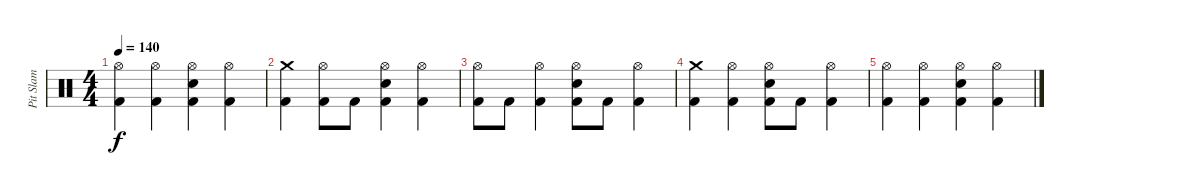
\track ("Pit Slam" "Pit Slam") {instrument percussion}
\staff {score}
\articulation defaults
\ts (4 4)
\tempo 140
\clef neutral
\ks c
("Hi-Hat (open)" "Kick (hit) 2").4{dy f} ("Hi-Hat (open)" "Kick (hit) 2").4 ("Hi-Hat (open)" "Electric Snare (hit)" "Kick (hit) 2").4 ("Hi-Hat (open)" "Kick (hit) 2").4 |
("Crash medium (hit)" "Kick (hit) 2").4 ("Hi-Hat (open)" "Kick (hit) 2").8 "Kick (hit) 2".8 ("Hi-Hat (open)" "Electric Snare (hit)" "Kick (hit) 2").4 ("Hi-Hat (open)" "Kick (hit) 2").4 |
("Hi-Hat (open)" "Kick (hit) 2").8 "Kick (hit) 2".8 ("Hi-Hat (open)" "Kick (hit) 2").4 ("Hi-Hat (open)" "Electric Snare (hit)" "Kick (hit) 2").8 "Kick (hit) 2".8 ("Hi-Hat (open)" "Kick (hit) 2").4 |
("Crash medium (hit)" "Kick (hit) 2").4 ("Hi-Hat (open)" "Kick (hit) 2").4 ("Hi-Hat (open)" "Electric Snare (hit)" "Kick (hit) 2").8 "Kick (hit) 2".8 ("Hi-Hat (open)" "Kick (hit) 2").4 |
("Hi-Hat (open)" "Kick (hit) 2").4 ("Hi-Hat (open)" "Kick (hit) 2").4 ("Hi-Hat (open)" "Electric Snare (hit)" "Kick (hit) 2").4 ("Hi-Hat (open)" "Kick (hit) 2").4
